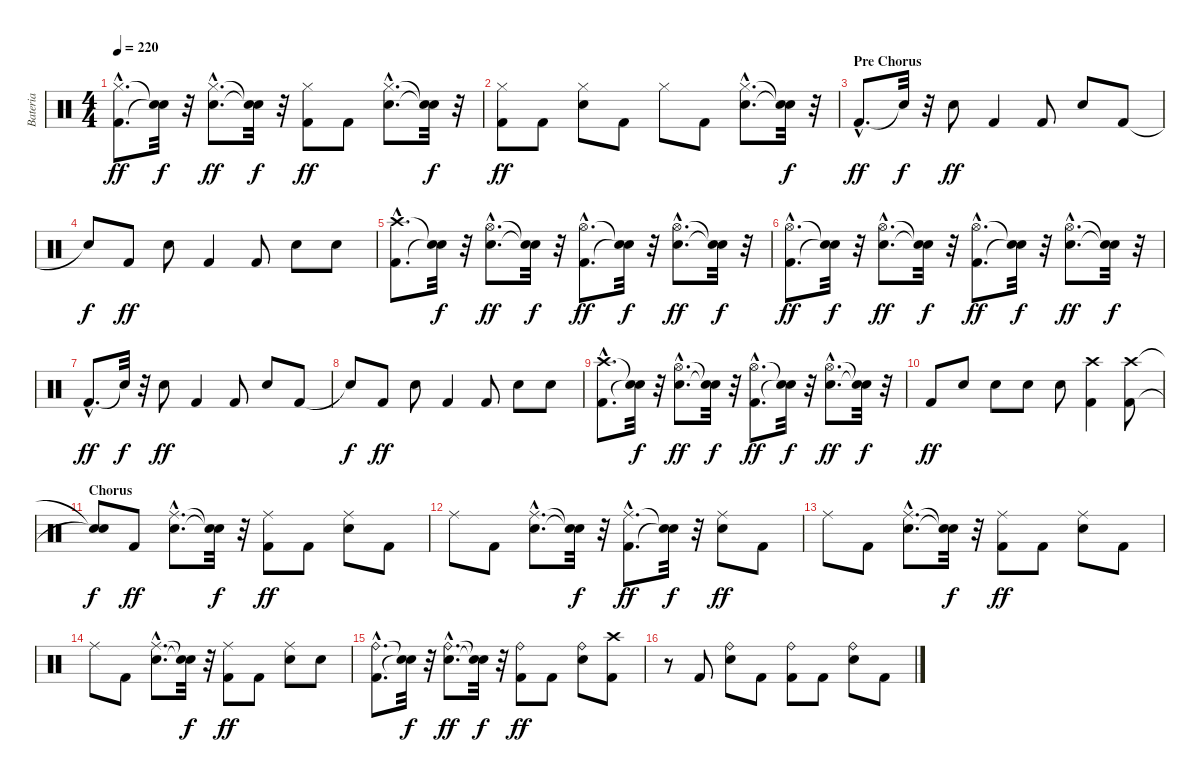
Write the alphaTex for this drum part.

\track ("Bateria" "Bateria") {instrument percussion}
\staff {score}
\articulation defaults
\ts (4 4)
\tempo 220
\clef neutral
\ks c
("Kick (hit) 2"{hac} "Hi-Hat (closed)"{hac}).8{d dy ff} ("Snare (hit)"{t} "Snare (hit)"{t}).32{dy f} r.32 ("Electric Snare (hit)"{hac} "Hi-Hat (closed)"{hac}).8{d dy ff} ("Snare (hit)"{t} "Snare (hit)"{t}).32{dy f} r.32 ("Kick (hit) 2" "Hi-Hat (closed)").8{dy ff} "Kick (hit) 2".8 ("Electric Snare (hit)"{hac} "Hi-Hat (closed)"{hac}).8{d} ("Snare (hit)"{t} "Snare (hit)"{t}).32{dy f} r.32 |
("Kick (hit) 2" "Hi-Hat (closed)").8{dy ff} "Kick (hit) 2".8 ("Electric Snare (hit)" "Hi-Hat (closed)").8 "Kick (hit) 2".8 "Hi-Hat (closed)".8 "Kick (hit) 2".8 ("Electric Snare (hit)"{hac} "Hi-Hat (closed)"{hac}).8{d} ("Snare (hit)"{t} "Snare (hit)"{t}).32{dy f} r.32 |
\section ("" "Pre Chorus")
"Kick (hit) 2"{hac}.8{d dy ff} "Snare (hit)"{t}.32{dy f} r.32 "Electric Snare (hit)".8{dy ff} "Kick (hit) 2".4 "Kick (hit) 2".8 "Electric Snare (hit)".8 "Kick (hit) 2".8 |
"Snare (hit)"{t}.8{dy f} "Kick (hit) 2".8{dy ff} "Electric Snare (hit)".8 "Kick (hit) 2".4 "Kick (hit) 2".8 "Electric Snare (hit)".8 "Electric Snare (hit)".8 |
("Kick (hit) 2"{hac} "Crash high (hit)"{hac}).8{d} ("Snare (hit)"{t} "Snare (hit)"{t}).32{dy f} r.32 ("Electric Snare (hit)"{hac} "Hi-Hat (open)"{hac}).8{d dy ff} ("Snare (hit)"{t} "Snare (hit)"{t}).32{dy f} r.32 ("Kick (hit) 2"{hac} "Hi-Hat (open)"{hac}).8{d dy ff} ("Snare (hit)"{t} "Snare (hit)"{t}).32{dy f} r.32 ("Electric Snare (hit)"{hac} "Hi-Hat (open)"{hac}).8{d dy ff} ("Snare (hit)"{t} "Snare (hit)"{t}).32{dy f} r.32 |
("Kick (hit) 2"{hac} "Hi-Hat (open)"{hac}).8{d dy ff} ("Snare (hit)"{t} "Snare (hit)"{t}).32{dy f} r.32 ("Electric Snare (hit)"{hac} "Hi-Hat (open)"{hac}).8{d dy ff} ("Snare (hit)"{t} "Snare (hit)"{t}).32{dy f} r.32 ("Kick (hit) 2"{hac} "Hi-Hat (open)"{hac}).8{d dy ff} ("Snare (hit)"{t} "Snare (hit)"{t}).32{dy f} r.32 ("Electric Snare (hit)"{hac} "Hi-Hat (open)"{hac}).8{d dy ff} ("Snare (hit)"{t} "Snare (hit)"{t}).32{dy f} r.32 |
"Kick (hit) 2"{hac}.8{d dy ff} "Snare (hit)"{t}.32{dy f} r.32 "Electric Snare (hit)".8{dy ff} "Kick (hit) 2".4 "Kick (hit) 2".8 "Electric Snare (hit)".8 "Kick (hit) 2".8 |
"Snare (hit)"{t}.8{dy f} "Kick (hit) 2".8{dy ff} "Electric Snare (hit)".8 "Kick (hit) 2".4 "Kick (hit) 2".8 "Electric Snare (hit)".8 "Electric Snare (hit)".8 |
("Kick (hit) 2"{hac} "Crash high (hit)"{hac}).8{d} ("Snare (hit)"{t} "Snare (hit)"{t}).32{dy f} r.32 ("Electric Snare (hit)"{hac} "Hi-Hat (open)"{hac}).8{d dy ff} ("Snare (hit)"{t} "Snare (hit)"{t}).32{dy f} r.32 ("Kick (hit) 2"{hac} "Hi-Hat (open)"{hac}).8{d dy ff} ("Snare (hit)"{t} "Snare (hit)"{t}).32{dy f} r.32 ("Electric Snare (hit)"{hac} "Hi-Hat (open)"{hac}).8{d dy ff} ("Snare (hit)"{t} "Snare (hit)"{t}).32{dy f} r.32 |
"Kick (hit) 2".8{dy ff} "Electric Snare (hit)".8 "Electric Snare (hit)".8 "Electric Snare (hit)".8 "Electric Snare (hit)".8 ("Kick (hit) 2" "Crash high (hit)").4 ("Kick (hit) 2" "Crash high (hit)").8 |
\section ("" "Chorus")
("Snare (hit)"{t} "Snare (hit)"{t}).8{dy f} "Kick (hit) 2".8{dy ff} ("Electric Snare (hit)"{hac} "Ride (middle)"{hac}).8{d} ("Snare (hit)"{t} "Snare (hit)"{t}).32{dy f} r.32 ("Kick (hit) 2" "Ride (middle)").8{dy ff} "Kick (hit) 2".8 ("Electric Snare (hit)" "Ride (middle)").8 "Kick (hit) 2".8 |
"Ride (middle)".8 "Kick (hit) 2".8 ("Electric Snare (hit)"{hac} "Ride (middle)"{hac}).8{d} ("Snare (hit)"{t} "Snare (hit)"{t}).32{dy f} r.32 ("Kick (hit) 2"{hac} "Ride (middle)"{hac}).8{d dy ff} ("Snare (hit)"{t} "Snare (hit)"{t}).32{dy f} r.32 ("Electric Snare (hit)" "Ride (middle)").8{dy ff} "Kick (hit) 2".8 |
"Ride (middle)".8 "Kick (hit) 2".8 ("Electric Snare (hit)"{hac} "Ride (middle)"{hac}).8{d} ("Snare (hit)"{t} "Snare (hit)"{t}).32{dy f} r.32 ("Kick (hit) 2" "Ride (middle)").8{dy ff} "Kick (hit) 2".8 ("Electric Snare (hit)" "Ride (middle)").8 "Kick (hit) 2".8 |
"Ride (middle)".8 "Kick (hit) 2".8 ("Electric Snare (hit)"{hac} "Ride (middle)"{hac}).8{d} ("Snare (hit)"{t} "Snare (hit)"{t}).32{dy f} r.32 ("Kick (hit) 2" "Ride (middle)").8{dy ff} "Kick (hit) 2".8 ("Electric Snare (hit)" "Ride (middle)").8 "Electric Snare (hit)".8 |
("Kick (hit) 2"{hac} "Ride (bell)"{hac}).8{d} ("Snare (hit)"{t} "Snare (hit)"{t}).32{dy f} r.32 ("Electric Snare (hit)"{hac} "Ride (bell)"{hac}).8{d dy ff} ("Snare (hit)"{t} "Snare (hit)"{t}).32{dy f} r.32 ("Kick (hit) 2" "Ride (bell)").8{dy ff} "Kick (hit) 2".8 ("Electric Snare (hit)" "Ride (bell)").8 ("Kick (hit) 2" "Crash high (hit)").8 |
r.8 "Kick (hit) 2".8 ("Electric Snare (hit)" "Ride (bell)").8 "Kick (hit) 2".8 ("Kick (hit) 2" "Ride (bell)").8 "Kick (hit) 2".8 ("Electric Snare (hit)" "Ride (bell)").8 "Kick (hit) 2".8
